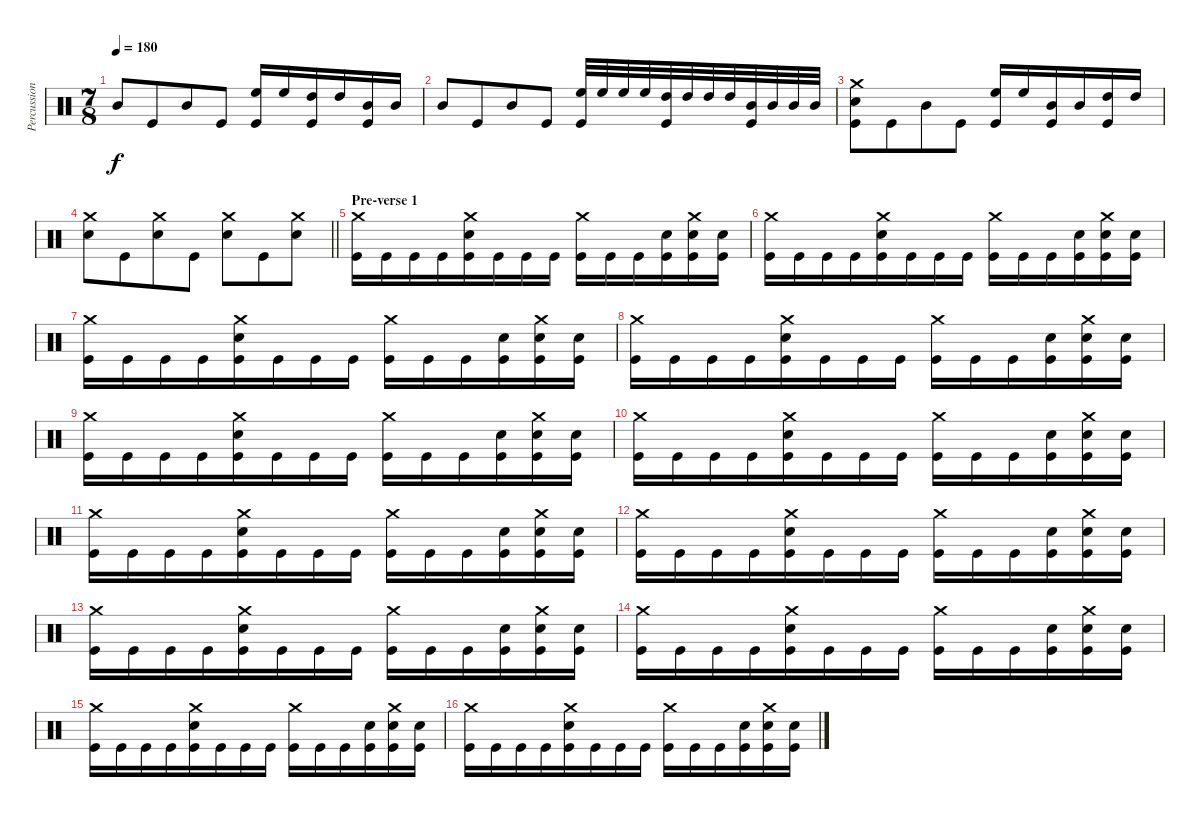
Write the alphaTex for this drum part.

\track ("Percussion" "Percussion") {instrument percussion}
\staff {score}
\articulation defaults
\ts (7 8)
\tempo 180
\clef neutral
\ks c "Mid Tom (hit)".8{dy f} "Kick (hit)".8 "Mid Tom (hit)".8 "Kick (hit)".8
("High Floor Tom (hit)" "Kick (hit)").16 "High Floor Tom (hit)".16 ("High Tom (hit)" "Kick (hit)").16 "High Tom (hit)".16 ("Mid Tom (hit)" "Kick (hit)").16 "Mid Tom (hit)".16 |
"Mid Tom (hit)".8 "Kick (hit)".8 "Mid Tom (hit)".8 "Kick (hit)".8 ("High Floor Tom (hit)" "Kick (hit)").32 "High Floor Tom (hit)".32 "High Floor Tom (hit)".32 "High Floor Tom (hit)".32 ("High Tom (hit)" "Kick (hit)").32 "High Tom (hit)".32 "High Tom (hit)".32 "High Tom (hit)".32 ("Mid Tom (hit)" "Kick (hit)").32 "Mid Tom (hit)".32 "Mid Tom (hit)".32 "Mid Tom (hit)".32 |
("Electric Snare (hit)" "Crash medium (hit)" "Kick (hit)").8 "Kick (hit)".8 "Mid Tom (hit)".8 "Kick (hit)".8 ("High Floor Tom (hit)" "Kick (hit)").16 "High Floor Tom (hit)".16 ("Mid Tom (hit)" "Kick (hit)").16 "Mid Tom (hit)".16 ("High Tom (hit)" "Kick (hit)").16 "High Tom (hit)".16 |
\barLineRight lightlight
("Crash medium (hit)" "Electric Snare (hit)").8 "Kick (hit)".8 ("Crash medium (hit)" "Electric Snare (hit)").8 "Kick (hit)".8 ("Crash medium (hit)" "Electric Snare (hit)").8 "Kick (hit)".8 ("Crash medium (hit)" "Electric Snare (hit)").8 |
\section ("" "Pre-verse 1")
("Crash medium (hit)" "Kick (hit)").16 "Kick (hit)".16 "Kick (hit)".16 "Kick (hit)".16 ("Electric Snare (hit)" "Crash medium (hit)" "Kick (hit)").16 "Kick (hit)".16 "Kick (hit)".16 "Kick (hit)".16 ("Crash medium (hit)" "Kick (hit)").16 "Kick (hit)".16 "Kick (hit)".16 ("Electric Snare (hit)" "Kick (hit)").16 ("Electric Snare (hit)" "Crash medium (hit)" "Kick (hit)").16 ("Electric Snare (hit)" "Kick (hit)").16 |
("Crash medium (hit)" "Kick (hit)").16 "Kick (hit)".16 "Kick (hit)".16 "Kick (hit)".16 ("Electric Snare (hit)" "Crash medium (hit)" "Kick (hit)").16 "Kick (hit)".16 "Kick (hit)".16 "Kick (hit)".16 ("Crash medium (hit)" "Kick (hit)").16 "Kick (hit)".16 "Kick (hit)".16 ("Electric Snare (hit)" "Kick (hit)").16 ("Electric Snare (hit)" "Crash medium (hit)" "Kick (hit)").16 ("Electric Snare (hit)" "Kick (hit)").16 |
("Crash medium (hit)" "Kick (hit)").16 "Kick (hit)".16 "Kick (hit)".16 "Kick (hit)".16 ("Electric Snare (hit)" "Crash medium (hit)" "Kick (hit)").16 "Kick (hit)".16 "Kick (hit)".16 "Kick (hit)".16 ("Crash medium (hit)" "Kick (hit)").16 "Kick (hit)".16 "Kick (hit)".16 ("Electric Snare (hit)" "Kick (hit)").16 ("Electric Snare (hit)" "Crash medium (hit)" "Kick (hit)").16 ("Electric Snare (hit)" "Kick (hit)").16 |
("Crash medium (hit)" "Kick (hit)").16 "Kick (hit)".16 "Kick (hit)".16 "Kick (hit)".16 ("Electric Snare (hit)" "Crash medium (hit)" "Kick (hit)").16 "Kick (hit)".16 "Kick (hit)".16 "Kick (hit)".16 ("Crash medium (hit)" "Kick (hit)").16 "Kick (hit)".16 "Kick (hit)".16 ("Electric Snare (hit)" "Kick (hit)").16 ("Electric Snare (hit)" "Crash medium (hit)" "Kick (hit)").16 ("Electric Snare (hit)" "Kick (hit)").16 |
("Crash medium (hit)" "Kick (hit)").16 "Kick (hit)".16 "Kick (hit)".16 "Kick (hit)".16 ("Electric Snare (hit)" "Crash medium (hit)" "Kick (hit)").16 "Kick (hit)".16 "Kick (hit)".16 "Kick (hit)".16 ("Crash medium (hit)" "Kick (hit)").16 "Kick (hit)".16 "Kick (hit)".16 ("Electric Snare (hit)" "Kick (hit)").16 ("Electric Snare (hit)" "Crash medium (hit)" "Kick (hit)").16 ("Electric Snare (hit)" "Kick (hit)").16 |
("Crash medium (hit)" "Kick (hit)").16 "Kick (hit)".16 "Kick (hit)".16 "Kick (hit)".16 ("Electric Snare (hit)" "Crash medium (hit)" "Kick (hit)").16 "Kick (hit)".16 "Kick (hit)".16 "Kick (hit)".16 ("Crash medium (hit)" "Kick (hit)").16 "Kick (hit)".16 "Kick (hit)".16 ("Electric Snare (hit)" "Kick (hit)").16 ("Electric Snare (hit)" "Crash medium (hit)" "Kick (hit)").16 ("Electric Snare (hit)" "Kick (hit)").16 |
("Crash medium (hit)" "Kick (hit)").16 "Kick (hit)".16 "Kick (hit)".16 "Kick (hit)".16 ("Electric Snare (hit)" "Crash medium (hit)" "Kick (hit)").16 "Kick (hit)".16 "Kick (hit)".16 "Kick (hit)".16 ("Crash medium (hit)" "Kick (hit)").16 "Kick (hit)".16 "Kick (hit)".16 ("Electric Snare (hit)" "Kick (hit)").16 ("Electric Snare (hit)" "Crash medium (hit)" "Kick (hit)").16 ("Electric Snare (hit)" "Kick (hit)").16 |
("Crash medium (hit)" "Kick (hit)").16 "Kick (hit)".16 "Kick (hit)".16 "Kick (hit)".16 ("Electric Snare (hit)" "Crash medium (hit)" "Kick (hit)").16 "Kick (hit)".16 "Kick (hit)".16 "Kick (hit)".16 ("Crash medium (hit)" "Kick (hit)").16 "Kick (hit)".16 "Kick (hit)".16 ("Electric Snare (hit)" "Kick (hit)").16 ("Electric Snare (hit)" "Crash medium (hit)" "Kick (hit)").16 ("Electric Snare (hit)" "Kick (hit)").16 |
("Crash medium (hit)" "Kick (hit)").16 "Kick (hit)".16 "Kick (hit)".16 "Kick (hit)".16 ("Electric Snare (hit)" "Crash medium (hit)" "Kick (hit)").16 "Kick (hit)".16 "Kick (hit)".16 "Kick (hit)".16 ("Crash medium (hit)" "Kick (hit)").16 "Kick (hit)".16 "Kick (hit)".16 ("Electric Snare (hit)" "Kick (hit)").16 ("Electric Snare (hit)" "Crash medium (hit)" "Kick (hit)").16 ("Electric Snare (hit)" "Kick (hit)").16 |
("Crash medium (hit)" "Kick (hit)").16 "Kick (hit)".16 "Kick (hit)".16 "Kick (hit)".16 ("Electric Snare (hit)" "Crash medium (hit)" "Kick (hit)").16 "Kick (hit)".16 "Kick (hit)".16 "Kick (hit)".16 ("Crash medium (hit)" "Kick (hit)").16 "Kick (hit)".16 "Kick (hit)".16 ("Electric Snare (hit)" "Kick (hit)").16 ("Electric Snare (hit)" "Crash medium (hit)" "Kick (hit)").16 ("Electric Snare (hit)" "Kick (hit)").16 |
("Crash medium (hit)" "Kick (hit)").16 "Kick (hit)".16 "Kick (hit)".16 "Kick (hit)".16 ("Electric Snare (hit)" "Crash medium (hit)" "Kick (hit)").16 "Kick (hit)".16 "Kick (hit)".16 "Kick (hit)".16 ("Crash medium (hit)" "Kick (hit)").16 "Kick (hit)".16 "Kick (hit)".16 ("Electric Snare (hit)" "Kick (hit)").16 ("Electric Snare (hit)" "Crash medium (hit)" "Kick (hit)").16 ("Electric Snare (hit)" "Kick (hit)").16 |
("Crash medium (hit)" "Kick (hit)").16 "Kick (hit)".16 "Kick (hit)".16 "Kick (hit)".16 ("Electric Snare (hit)" "Crash medium (hit)" "Kick (hit)").16 "Kick (hit)".16 "Kick (hit)".16 "Kick (hit)".16 ("Crash medium (hit)" "Kick (hit)").16 "Kick (hit)".16 "Kick (hit)".16 ("Electric Snare (hit)" "Kick (hit)").16 ("Electric Snare (hit)" "Crash medium (hit)" "Kick (hit)").16 ("Electric Snare (hit)" "Kick (hit)").16
